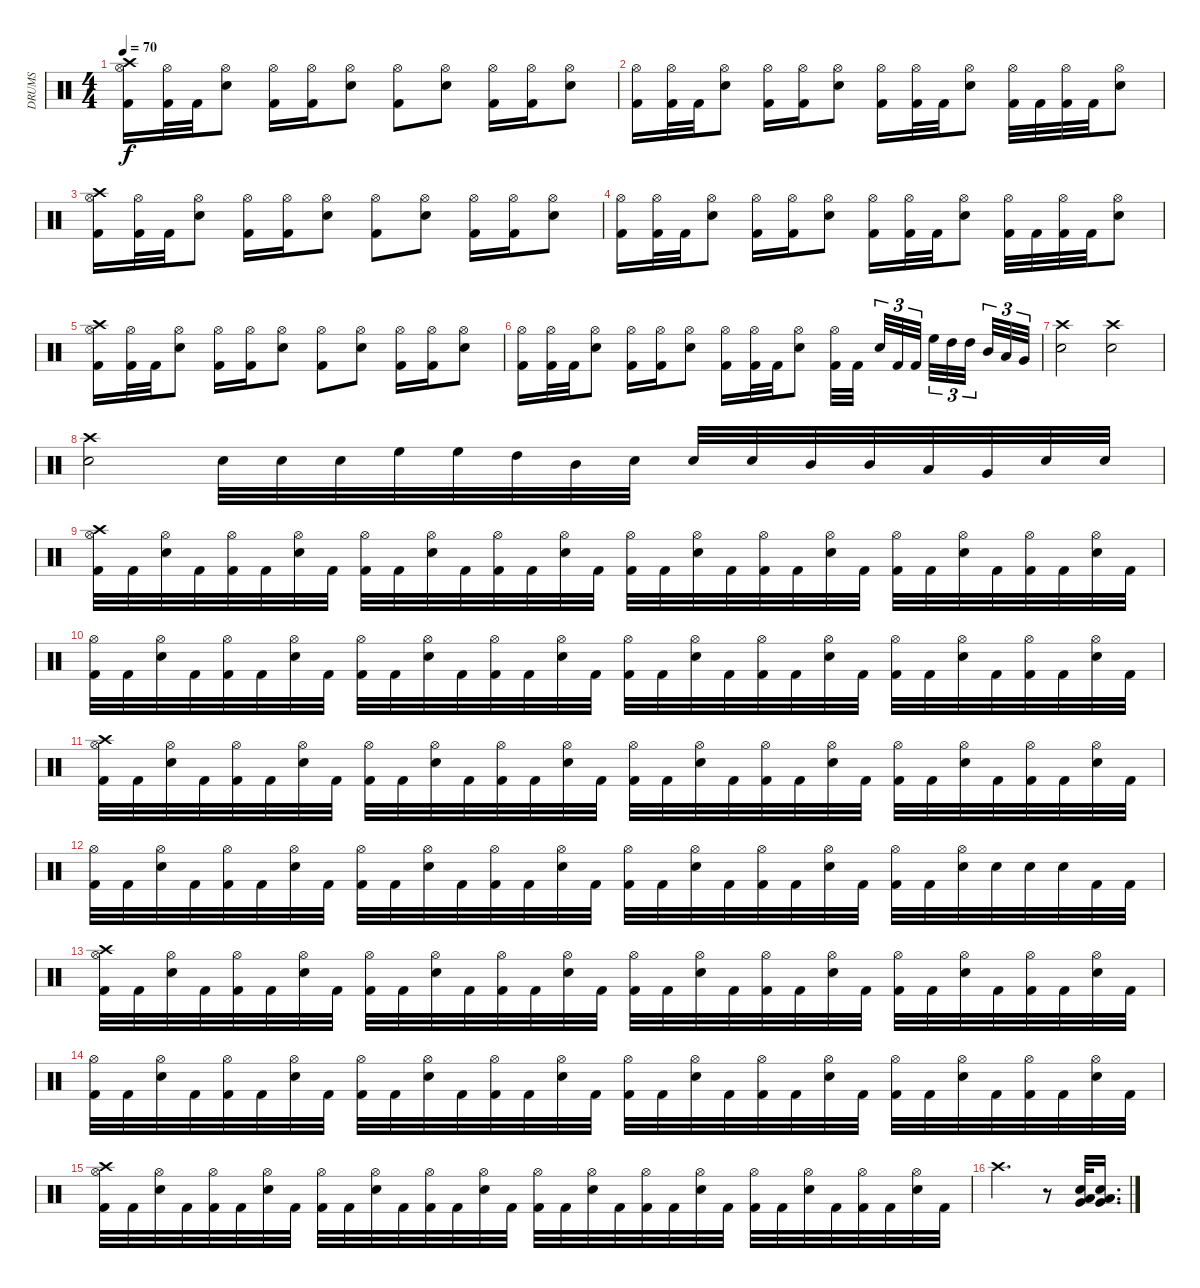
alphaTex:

\track ("DRUMS" "DRUMS") {instrument percussion}
\staff {score}
\articulation defaults
\ts (4 4)
\tempo 70
\clef neutral
\ks c
("Hi-Hat (open)" "Crash high (hit)" "Kick (hit) 2").16{dy f} ("Hi-Hat (open)" "Kick (hit) 2").32 "Kick (hit) 2".32 ("Hi-Hat (open)" "Snare (hit) 2").8 ("Hi-Hat (open)" "Kick (hit) 2").16 ("Hi-Hat (open)" "Kick (hit) 2").16 ("Hi-Hat (open)" "Snare (hit) 2").8 ("Hi-Hat (open)" "Kick (hit) 2").8 ("Hi-Hat (open)" "Snare (hit) 2").8 ("Hi-Hat (open)" "Kick (hit) 2").16 ("Hi-Hat (open)" "Kick (hit) 2").16 ("Hi-Hat (open)" "Snare (hit) 2").8 |
("Hi-Hat (open)" "Kick (hit) 2").16 ("Hi-Hat (open)" "Kick (hit) 2").32 "Kick (hit) 2".32 ("Hi-Hat (open)" "Snare (hit) 2").8 ("Hi-Hat (open)" "Kick (hit) 2").16 ("Hi-Hat (open)" "Kick (hit) 2").16 ("Hi-Hat (open)" "Snare (hit) 2").8 ("Hi-Hat (open)" "Kick (hit) 2").16 ("Hi-Hat (open)" "Kick (hit) 2").32 "Kick (hit) 2".32 ("Hi-Hat (open)" "Snare (hit) 2").8 ("Hi-Hat (open)" "Kick (hit) 2").32 "Kick (hit) 2".32 ("Hi-Hat (open)" "Kick (hit) 2").32 "Kick (hit) 2".32 ("Hi-Hat (open)" "Snare (hit) 2").8 |
("Hi-Hat (open)" "Crash high (hit)" "Kick (hit) 2").16 ("Hi-Hat (open)" "Kick (hit) 2").32 "Kick (hit) 2".32 ("Hi-Hat (open)" "Snare (hit) 2").8 ("Hi-Hat (open)" "Kick (hit) 2").16 ("Hi-Hat (open)" "Kick (hit) 2").16 ("Hi-Hat (open)" "Snare (hit) 2").8 ("Hi-Hat (open)" "Kick (hit) 2").8 ("Hi-Hat (open)" "Snare (hit) 2").8 ("Hi-Hat (open)" "Kick (hit) 2").16 ("Hi-Hat (open)" "Kick (hit) 2").16 ("Hi-Hat (open)" "Snare (hit) 2").8 |
("Hi-Hat (open)" "Kick (hit) 2").16 ("Hi-Hat (open)" "Kick (hit) 2").32 "Kick (hit) 2".32 ("Hi-Hat (open)" "Snare (hit) 2").8 ("Hi-Hat (open)" "Kick (hit) 2").16 ("Hi-Hat (open)" "Kick (hit) 2").16 ("Hi-Hat (open)" "Snare (hit) 2").8 ("Hi-Hat (open)" "Kick (hit) 2").16 ("Hi-Hat (open)" "Kick (hit) 2").32 "Kick (hit) 2".32 ("Hi-Hat (open)" "Snare (hit) 2").8 ("Hi-Hat (open)" "Kick (hit) 2").32 "Kick (hit) 2".32 ("Hi-Hat (open)" "Kick (hit) 2").32 "Kick (hit) 2".32 ("Hi-Hat (open)" "Snare (hit) 2").8 |
("Hi-Hat (open)" "Crash high (hit)" "Kick (hit) 2").16 ("Hi-Hat (open)" "Kick (hit) 2").32 "Kick (hit) 2".32 ("Hi-Hat (open)" "Snare (hit) 2").8 ("Hi-Hat (open)" "Kick (hit) 2").16 ("Hi-Hat (open)" "Kick (hit) 2").16 ("Hi-Hat (open)" "Snare (hit) 2").8 ("Hi-Hat (open)" "Kick (hit) 2").8 ("Hi-Hat (open)" "Snare (hit) 2").8 ("Hi-Hat (open)" "Kick (hit) 2").16 ("Hi-Hat (open)" "Kick (hit) 2").16 ("Hi-Hat (open)" "Snare (hit) 2").8 |
("Hi-Hat (open)" "Kick (hit) 2").16 ("Hi-Hat (open)" "Kick (hit) 2").32 "Kick (hit) 2".32 ("Hi-Hat (open)" "Snare (hit) 2").8 ("Hi-Hat (open)" "Kick (hit) 2").16 ("Hi-Hat (open)" "Kick (hit) 2").16 ("Hi-Hat (open)" "Snare (hit) 2").8 ("Hi-Hat (open)" "Kick (hit) 2").16 ("Hi-Hat (open)" "Kick (hit) 2").32 "Kick (hit) 2".32 ("Hi-Hat (open)" "Snare (hit) 2").8 ("Hi-Hat (open)" "Kick (hit) 2").32 "Kick (hit) 2".32{beam splitsecondary} "Snare (hit) 2".32{tu (3 2)} "Kick (hit) 2".32{tu (3 2)} "Kick (hit) 2".32{tu (3 2) beam splitsecondary} "High Floor Tom (hit)".32{tu (3 2)} "High Tom (hit)".32{tu (3 2)} "High Tom (hit)".32{tu (3 2) beam splitsecondary} "Mid Tom (hit)".32{tu (3 2)} "Low Tom (hit)".32{tu (3 2)} "Very Low Tom (hit)".32{tu (3 2)} |
("Crash high (hit)" "Snare (hit) 2").2 ("Crash high (hit)" "Snare (hit) 2").2 |
("Crash high (hit)" "Snare (hit) 2").2 "Snare (hit) 2".32 "Snare (hit) 2".32 "Snare (hit) 2".32 "High Floor Tom (hit)".32 "High Floor Tom (hit)".32 "High Tom (hit)".32 "Mid Tom (hit)".32 "Snare (hit) 2".32 "Snare (hit) 2".32 "Snare (hit) 2".32 "Mid Tom (hit)".32 "Mid Tom (hit)".32 "Low Tom (hit)".32 "Very Low Tom (hit)".32 "Snare (hit) 2".32 "Snare (hit) 2".32 |
("Hi-Hat (open)" "Crash high (hit)" "Kick (hit) 2").32 "Kick (hit) 2".32 ("Hi-Hat (open)" "Snare (hit) 2").32 "Kick (hit) 2".32 ("Hi-Hat (open)" "Kick (hit) 2").32 "Kick (hit) 2".32 ("Hi-Hat (open)" "Snare (hit) 2").32 "Kick (hit) 2".32 ("Hi-Hat (open)" "Kick (hit) 2").32 "Kick (hit) 2".32 ("Hi-Hat (open)" "Snare (hit) 2").32 "Kick (hit) 2".32 ("Hi-Hat (open)" "Kick (hit) 2").32 "Kick (hit) 2".32 ("Hi-Hat (open)" "Snare (hit) 2").32 "Kick (hit) 2".32 ("Hi-Hat (open)" "Kick (hit) 2").32 "Kick (hit) 2".32 ("Hi-Hat (open)" "Snare (hit) 2").32 "Kick (hit) 2".32 ("Hi-Hat (open)" "Kick (hit) 2").32 "Kick (hit) 2".32 ("Hi-Hat (open)" "Snare (hit) 2").32 "Kick (hit) 2".32 ("Hi-Hat (open)" "Kick (hit) 2").32 "Kick (hit) 2".32 ("Hi-Hat (open)" "Snare (hit) 2").32 "Kick (hit) 2".32 ("Hi-Hat (open)" "Kick (hit) 2").32 "Kick (hit) 2".32 ("Hi-Hat (open)" "Snare (hit) 2").32 "Kick (hit) 2".32 |
("Hi-Hat (open)" "Kick (hit) 2").32 "Kick (hit) 2".32 ("Hi-Hat (open)" "Snare (hit) 2").32 "Kick (hit) 2".32 ("Hi-Hat (open)" "Kick (hit) 2").32 "Kick (hit) 2".32 ("Hi-Hat (open)" "Snare (hit) 2").32 "Kick (hit) 2".32 ("Hi-Hat (open)" "Kick (hit) 2").32 "Kick (hit) 2".32 ("Hi-Hat (open)" "Snare (hit) 2").32 "Kick (hit) 2".32 ("Hi-Hat (open)" "Kick (hit) 2").32 "Kick (hit) 2".32 ("Hi-Hat (open)" "Snare (hit) 2").32 "Kick (hit) 2".32 ("Hi-Hat (open)" "Kick (hit) 2").32 "Kick (hit) 2".32 ("Hi-Hat (open)" "Snare (hit) 2").32 "Kick (hit) 2".32 ("Hi-Hat (open)" "Kick (hit) 2").32 "Kick (hit) 2".32 ("Hi-Hat (open)" "Snare (hit) 2").32 "Kick (hit) 2".32 ("Hi-Hat (open)" "Kick (hit) 2").32 "Kick (hit) 2".32 ("Hi-Hat (open)" "Snare (hit) 2").32 "Kick (hit) 2".32 ("Hi-Hat (open)" "Kick (hit) 2").32 "Kick (hit) 2".32 ("Hi-Hat (open)" "Snare (hit) 2").32 "Kick (hit) 2".32 |
("Hi-Hat (open)" "Crash high (hit)" "Kick (hit) 2").32 "Kick (hit) 2".32 ("Hi-Hat (open)" "Snare (hit) 2").32 "Kick (hit) 2".32 ("Hi-Hat (open)" "Kick (hit) 2").32 "Kick (hit) 2".32 ("Hi-Hat (open)" "Snare (hit) 2").32 "Kick (hit) 2".32 ("Hi-Hat (open)" "Kick (hit) 2").32 "Kick (hit) 2".32 ("Hi-Hat (open)" "Snare (hit) 2").32 "Kick (hit) 2".32 ("Hi-Hat (open)" "Kick (hit) 2").32 "Kick (hit) 2".32 ("Hi-Hat (open)" "Snare (hit) 2").32 "Kick (hit) 2".32 ("Hi-Hat (open)" "Kick (hit) 2").32 "Kick (hit) 2".32 ("Hi-Hat (open)" "Snare (hit) 2").32 "Kick (hit) 2".32 ("Hi-Hat (open)" "Kick (hit) 2").32 "Kick (hit) 2".32 ("Hi-Hat (open)" "Snare (hit) 2").32 "Kick (hit) 2".32 ("Hi-Hat (open)" "Kick (hit) 2").32 "Kick (hit) 2".32 ("Hi-Hat (open)" "Snare (hit) 2").32 "Kick (hit) 2".32 ("Hi-Hat (open)" "Kick (hit) 2").32 "Kick (hit) 2".32 ("Hi-Hat (open)" "Snare (hit) 2").32 "Kick (hit) 2".32 |
("Hi-Hat (open)" "Kick (hit) 2").32 "Kick (hit) 2".32 ("Hi-Hat (open)" "Snare (hit) 2").32 "Kick (hit) 2".32 ("Hi-Hat (open)" "Kick (hit) 2").32 "Kick (hit) 2".32 ("Hi-Hat (open)" "Snare (hit) 2").32 "Kick (hit) 2".32 ("Hi-Hat (open)" "Kick (hit) 2").32 "Kick (hit) 2".32 ("Hi-Hat (open)" "Snare (hit) 2").32 "Kick (hit) 2".32 ("Hi-Hat (open)" "Kick (hit) 2").32 "Kick (hit) 2".32 ("Hi-Hat (open)" "Snare (hit) 2").32 "Kick (hit) 2".32 ("Hi-Hat (open)" "Kick (hit) 2").32 "Kick (hit) 2".32 ("Hi-Hat (open)" "Snare (hit) 2").32 "Kick (hit) 2".32 ("Hi-Hat (open)" "Kick (hit) 2").32 "Kick (hit) 2".32 ("Hi-Hat (open)" "Snare (hit) 2").32 "Kick (hit) 2".32 ("Hi-Hat (open)" "Kick (hit) 2").32 "Kick (hit) 2".32 ("Hi-Hat (open)" "Snare (hit) 2").32 "Snare (hit) 2".32 "Snare (hit) 2".32 "Snare (hit) 2".32 "Kick (hit) 2".32 "Kick (hit) 2".32 |
("Hi-Hat (open)" "Crash high (hit)" "Kick (hit) 2").32 "Kick (hit) 2".32 ("Hi-Hat (open)" "Snare (hit) 2").32 "Kick (hit) 2".32 ("Hi-Hat (open)" "Kick (hit) 2").32 "Kick (hit) 2".32 ("Hi-Hat (open)" "Snare (hit) 2").32 "Kick (hit) 2".32 ("Hi-Hat (open)" "Kick (hit) 2").32 "Kick (hit) 2".32 ("Hi-Hat (open)" "Snare (hit) 2").32 "Kick (hit) 2".32 ("Hi-Hat (open)" "Kick (hit) 2").32 "Kick (hit) 2".32 ("Hi-Hat (open)" "Snare (hit) 2").32 "Kick (hit) 2".32 ("Hi-Hat (open)" "Kick (hit) 2").32 "Kick (hit) 2".32 ("Hi-Hat (open)" "Snare (hit) 2").32 "Kick (hit) 2".32 ("Hi-Hat (open)" "Kick (hit) 2").32 "Kick (hit) 2".32 ("Hi-Hat (open)" "Snare (hit) 2").32 "Kick (hit) 2".32 ("Hi-Hat (open)" "Kick (hit) 2").32 "Kick (hit) 2".32 ("Hi-Hat (open)" "Snare (hit) 2").32 "Kick (hit) 2".32 ("Hi-Hat (open)" "Kick (hit) 2").32 "Kick (hit) 2".32 ("Hi-Hat (open)" "Snare (hit) 2").32 "Kick (hit) 2".32 |
("Hi-Hat (open)" "Kick (hit) 2").32 "Kick (hit) 2".32 ("Hi-Hat (open)" "Snare (hit) 2").32 "Kick (hit) 2".32 ("Hi-Hat (open)" "Kick (hit) 2").32 "Kick (hit) 2".32 ("Hi-Hat (open)" "Snare (hit) 2").32 "Kick (hit) 2".32 ("Hi-Hat (open)" "Kick (hit) 2").32 "Kick (hit) 2".32 ("Hi-Hat (open)" "Snare (hit) 2").32 "Kick (hit) 2".32 ("Hi-Hat (open)" "Kick (hit) 2").32 "Kick (hit) 2".32 ("Hi-Hat (open)" "Snare (hit) 2").32 "Kick (hit) 2".32 ("Hi-Hat (open)" "Kick (hit) 2").32 "Kick (hit) 2".32 ("Hi-Hat (open)" "Snare (hit) 2").32 "Kick (hit) 2".32 ("Hi-Hat (open)" "Kick (hit) 2").32 "Kick (hit) 2".32 ("Hi-Hat (open)" "Snare (hit) 2").32 "Kick (hit) 2".32 ("Hi-Hat (open)" "Kick (hit) 2").32 "Kick (hit) 2".32 ("Hi-Hat (open)" "Snare (hit) 2").32 "Kick (hit) 2".32 ("Hi-Hat (open)" "Kick (hit) 2").32 "Kick (hit) 2".32 ("Hi-Hat (open)" "Snare (hit) 2").32 "Kick (hit) 2".32 |
("Hi-Hat (open)" "Crash high (hit)" "Kick (hit) 2").32 "Kick (hit) 2".32 ("Hi-Hat (open)" "Snare (hit) 2").32 "Kick (hit) 2".32 ("Hi-Hat (open)" "Kick (hit) 2").32 "Kick (hit) 2".32 ("Hi-Hat (open)" "Snare (hit) 2").32 "Kick (hit) 2".32 ("Hi-Hat (open)" "Kick (hit) 2").32 "Kick (hit) 2".32 ("Hi-Hat (open)" "Snare (hit) 2").32 "Kick (hit) 2".32 ("Hi-Hat (open)" "Kick (hit) 2").32 "Kick (hit) 2".32 ("Hi-Hat (open)" "Snare (hit) 2").32 "Kick (hit) 2".32 ("Hi-Hat (open)" "Kick (hit) 2").32 "Kick (hit) 2".32 ("Hi-Hat (open)" "Snare (hit) 2").32 "Kick (hit) 2".32 ("Hi-Hat (open)" "Kick (hit) 2").32 "Kick (hit) 2".32 ("Hi-Hat (open)" "Snare (hit) 2").32 "Kick (hit) 2".32 ("Hi-Hat (open)" "Kick (hit) 2").32 "Kick (hit) 2".32 ("Hi-Hat (open)" "Snare (hit) 2").32 "Kick (hit) 2".32 ("Hi-Hat (open)" "Kick (hit) 2").32 "Kick (hit) 2".32 ("Hi-Hat (open)" "Snare (hit) 2").32 "Kick (hit) 2".32 |
"Crash high (hit)".2{d} r.8 ("Low Tom (hit)" "Very Low Tom (hit)" "Snare (hit) 2").32 ("Very Low Tom (hit)" "Low Floor Tom (hit)" "Snare (hit) 2").16{d}
